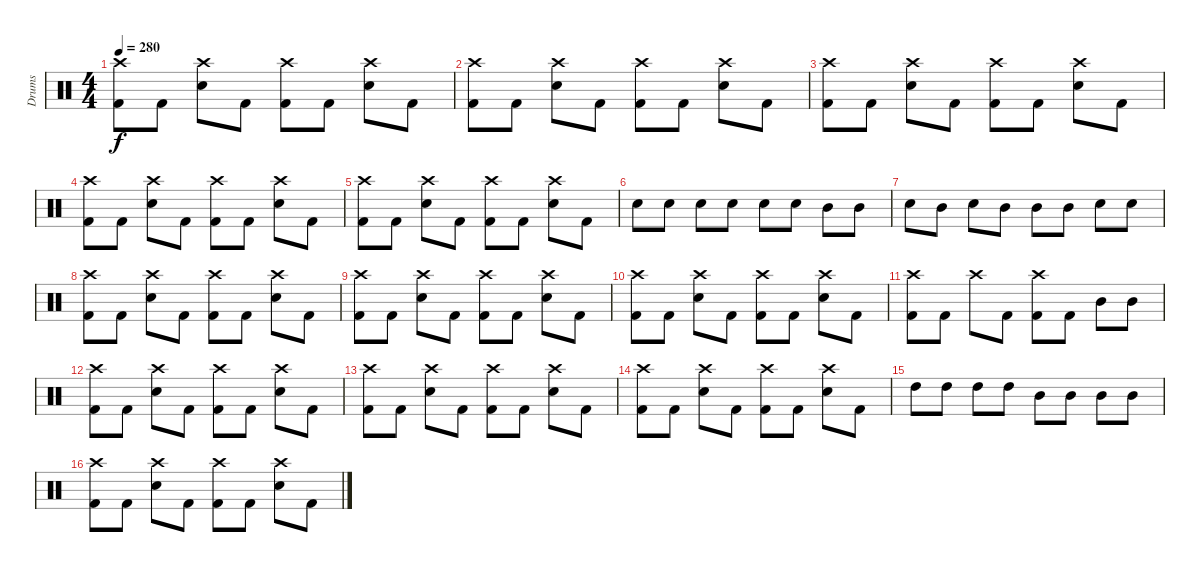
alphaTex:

\track ("Drums" "Drums") {instrument percussion}
\staff {score}
\articulation defaults
\ts (4 4)
\tempo 280
\clef neutral
\ks c
("Crash high (hit)" "Kick (hit) 2").8{dy f} "Kick (hit) 2".8 ("Crash high (hit)" "Snare (hit) 2").8 "Kick (hit) 2".8 ("Crash high (hit)" "Kick (hit) 2").8 "Kick (hit) 2".8 ("Crash high (hit)" "Snare (hit) 2").8 "Kick (hit) 2".8 |
("Crash high (hit)" "Kick (hit) 2").8 "Kick (hit) 2".8 ("Crash high (hit)" "Snare (hit) 2").8 "Kick (hit) 2".8 ("Crash high (hit)" "Kick (hit) 2").8 "Kick (hit) 2".8 ("Crash high (hit)" "Snare (hit) 2").8 "Kick (hit) 2".8 |
("Crash high (hit)" "Kick (hit) 2").8 "Kick (hit) 2".8 ("Crash high (hit)" "Snare (hit) 2").8 "Kick (hit) 2".8 ("Crash high (hit)" "Kick (hit) 2").8 "Kick (hit) 2".8 ("Crash high (hit)" "Snare (hit) 2").8 "Kick (hit) 2".8 |
("Crash high (hit)" "Kick (hit) 2").8 "Kick (hit) 2".8 ("Crash high (hit)" "Snare (hit) 2").8 "Kick (hit) 2".8 ("Crash high (hit)" "Kick (hit) 2").8 "Kick (hit) 2".8 ("Crash high (hit)" "Snare (hit) 2").8 "Kick (hit) 2".8 |
("Crash high (hit)" "Kick (hit) 2").8 "Kick (hit) 2".8 ("Crash high (hit)" "Snare (hit) 2").8 "Kick (hit) 2".8 ("Crash high (hit)" "Kick (hit) 2").8 "Kick (hit) 2".8 ("Crash high (hit)" "Snare (hit) 2").8 "Kick (hit) 2".8 |
"Snare (hit) 2".8 "Snare (hit) 2".8 "Snare (hit) 2".8 "Snare (hit) 2".8 "Snare (hit) 2".8 "Snare (hit) 2".8 "Mid Tom (hit)".8 "Mid Tom (hit)".8 |
"Snare (hit) 2".8 "Mid Tom (hit)".8 "Snare (hit) 2".8 "Mid Tom (hit)".8 "Mid Tom (hit)".8 "Mid Tom (hit)".8 "Snare (hit) 2".8 "Snare (hit) 2".8 |
("Kick (hit) 2" "Crash high (hit)").8 "Kick (hit) 2".8 ("Crash high (hit)" "Snare (hit) 2").8 "Kick (hit) 2".8 ("Kick (hit) 2" "Crash high (hit)").8 "Kick (hit) 2".8 ("Crash high (hit)" "Snare (hit) 2").8 "Kick (hit) 2".8 |
("Kick (hit) 2" "Crash high (hit)").8 "Kick (hit) 2".8 ("Crash high (hit)" "Snare (hit) 2").8 "Kick (hit) 2".8 ("Kick (hit) 2" "Crash high (hit)").8 "Kick (hit) 2".8 ("Crash high (hit)" "Snare (hit) 2").8 "Kick (hit) 2".8 |
("Kick (hit) 2" "Crash high (hit)").8 "Kick (hit) 2".8 ("Crash high (hit)" "Snare (hit) 2").8 "Kick (hit) 2".8 ("Kick (hit) 2" "Crash high (hit)").8 "Kick (hit) 2".8 ("Crash high (hit)" "Snare (hit) 2").8 "Kick (hit) 2".8 |
("Crash high (hit)" "Kick (hit) 2").8 "Kick (hit) 2".8 "Crash high (hit)".8 "Kick (hit) 2".8 ("Crash high (hit)" "Kick (hit) 2").8 "Kick (hit) 2".8 "Mid Tom (hit)".8 "Mid Tom (hit)".8 |
("Kick (hit) 2" "Crash high (hit)").8 "Kick (hit) 2".8 ("Crash high (hit)" "Snare (hit) 2").8 "Kick (hit) 2".8 ("Kick (hit) 2" "Crash high (hit)").8 "Kick (hit) 2".8 ("Crash high (hit)" "Snare (hit) 2").8 "Kick (hit) 2".8 |
("Kick (hit) 2" "Crash high (hit)").8 "Kick (hit) 2".8 ("Crash high (hit)" "Snare (hit) 2").8 "Kick (hit) 2".8 ("Kick (hit) 2" "Crash high (hit)").8 "Kick (hit) 2".8 ("Crash high (hit)" "Snare (hit) 2").8 "Kick (hit) 2".8 |
("Kick (hit) 2" "Crash high (hit)").8 "Kick (hit) 2".8 ("Crash high (hit)" "Snare (hit) 2").8 "Kick (hit) 2".8 ("Kick (hit) 2" "Crash high (hit)").8 "Kick (hit) 2".8 ("Crash high (hit)" "Snare (hit) 2").8 "Kick (hit) 2".8 |
"High Tom (hit)".8 "High Tom (hit)".8 "High Tom (hit)".8 "High Tom (hit)".8 "Mid Tom (hit)".8 "Mid Tom (hit)".8 "Mid Tom (hit)".8 "Mid Tom (hit)".8 |
("Kick (hit) 2" "Crash high (hit)").8 "Kick (hit) 2".8 ("Crash high (hit)" "Snare (hit) 2").8 "Kick (hit) 2".8 ("Kick (hit) 2" "Crash high (hit)").8 "Kick (hit) 2".8 ("Crash high (hit)" "Snare (hit) 2").8 "Kick (hit) 2".8
